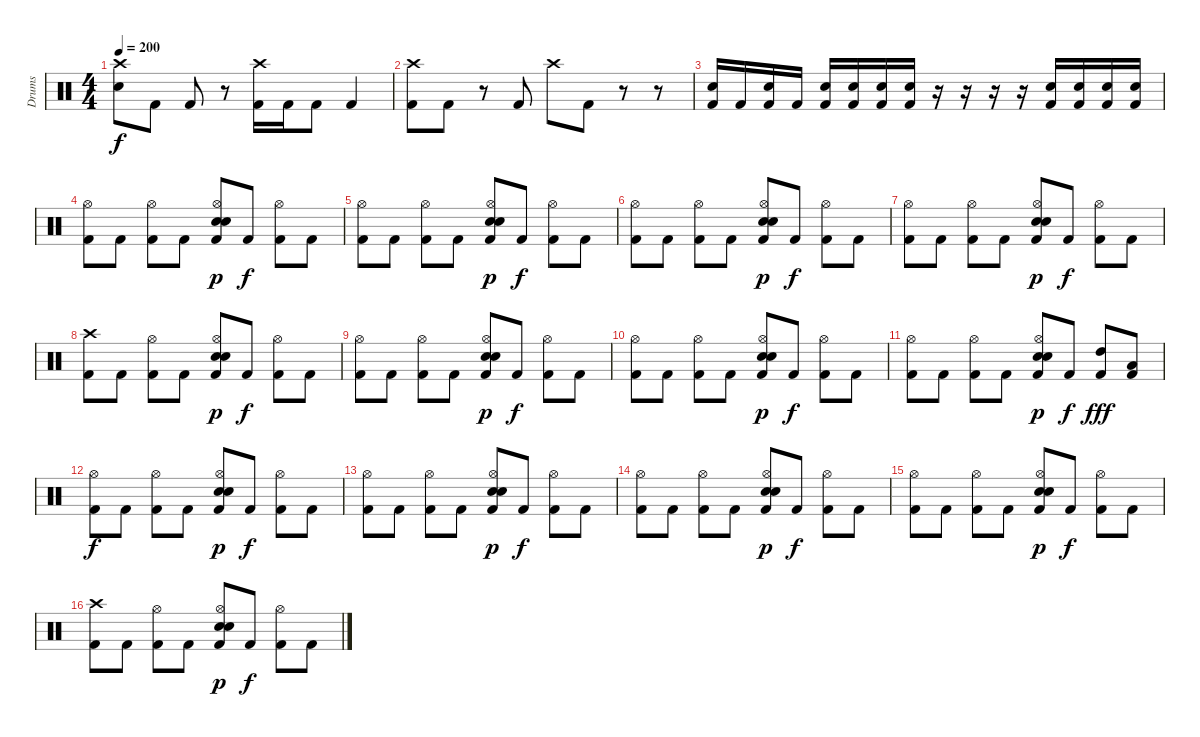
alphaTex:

\track ("Drums" "Drums") {instrument percussion}
\staff {score}
\articulation defaults
\ts (4 4)
\tempo 200
\clef neutral
\ks c
("Crash high (hit)" "Electric Snare (hit)").8{dy f} "Kick (hit) 2".8 "Kick (hit) 2".8 r.8 ("Crash high (hit)" "Kick (hit) 2").16 "Kick (hit) 2".16 "Kick (hit) 2".8 "Kick (hit) 2".4 |
("Crash high (hit)" "Kick (hit) 2").8 "Kick (hit) 2".8 r.8 "Kick (hit) 2".8 "Crash high (hit)".8 "Kick (hit) 2".8 r.8 r.8 |
("Electric Snare (hit)" "Kick (hit) 2").16 "Kick (hit) 2".16 ("Electric Snare (hit)" "Kick (hit) 2").16 "Kick (hit) 2".16 ("Electric Snare (hit)" "Kick (hit) 2").16 ("Electric Snare (hit)" "Kick (hit) 2").16 ("Electric Snare (hit)" "Kick (hit) 2").16 ("Electric Snare (hit)" "Kick (hit) 2").16 r.16 r.16 r.16 r.16 ("Electric Snare (hit)" "Kick (hit) 2").16 ("Electric Snare (hit)" "Kick (hit) 2").16 ("Electric Snare (hit)" "Kick (hit) 2").16 ("Electric Snare (hit)" "Kick (hit) 2").16 |
("Hi-Hat (open)" "Kick (hit) 2").8 "Kick (hit) 2".8 ("Hi-Hat (open)" "Kick (hit) 2").8 "Kick (hit) 2".8 ("Hi-Hat (open)" "Snare (hit) 2" "Electric Snare (hit)" "Kick (hit) 2").8{dy p} "Kick (hit) 2".8{dy f} ("Hi-Hat (open)" "Kick (hit) 2").8 "Kick (hit) 2".8 |
("Hi-Hat (open)" "Kick (hit) 2").8 "Kick (hit) 2".8 ("Hi-Hat (open)" "Kick (hit) 2").8 "Kick (hit) 2".8 ("Hi-Hat (open)" "Snare (hit) 2" "Electric Snare (hit)" "Kick (hit) 2").8{dy p} "Kick (hit) 2".8{dy f} ("Hi-Hat (open)" "Kick (hit) 2").8 "Kick (hit) 2".8 |
("Hi-Hat (open)" "Kick (hit) 2").8 "Kick (hit) 2".8 ("Hi-Hat (open)" "Kick (hit) 2").8 "Kick (hit) 2".8 ("Hi-Hat (open)" "Snare (hit) 2" "Electric Snare (hit)" "Kick (hit) 2").8{dy p} "Kick (hit) 2".8{dy f} ("Hi-Hat (open)" "Kick (hit) 2").8 "Kick (hit) 2".8 |
("Hi-Hat (open)" "Kick (hit) 2").8 "Kick (hit) 2".8 ("Hi-Hat (open)" "Kick (hit) 2").8 "Kick (hit) 2".8 ("Hi-Hat (open)" "Snare (hit) 2" "Electric Snare (hit)" "Kick (hit) 2").8{dy p} "Kick (hit) 2".8{dy f} ("Hi-Hat (open)" "Kick (hit) 2").8 "Kick (hit) 2".8 |
("Crash high (hit)" "Kick (hit) 2").8 "Kick (hit) 2".8 ("Hi-Hat (open)" "Kick (hit) 2").8 "Kick (hit) 2".8 ("Hi-Hat (open)" "Snare (hit) 2" "Electric Snare (hit)" "Kick (hit) 2").8{dy p} "Kick (hit) 2".8{dy f} ("Hi-Hat (open)" "Kick (hit) 2").8 "Kick (hit) 2".8 |
("Hi-Hat (open)" "Kick (hit) 2").8 "Kick (hit) 2".8 ("Hi-Hat (open)" "Kick (hit) 2").8 "Kick (hit) 2".8 ("Hi-Hat (open)" "Snare (hit) 2" "Electric Snare (hit)" "Kick (hit) 2").8{dy p} "Kick (hit) 2".8{dy f} ("Hi-Hat (open)" "Kick (hit) 2").8 "Kick (hit) 2".8 |
("Hi-Hat (open)" "Kick (hit) 2").8 "Kick (hit) 2".8 ("Hi-Hat (open)" "Kick (hit) 2").8 "Kick (hit) 2".8 ("Hi-Hat (open)" "Snare (hit) 2" "Electric Snare (hit)" "Kick (hit) 2").8{dy p} "Kick (hit) 2".8{dy f} ("Hi-Hat (open)" "Kick (hit) 2").8 "Kick (hit) 2".8 |
("Hi-Hat (open)" "Kick (hit) 2").8 "Kick (hit) 2".8 ("Hi-Hat (open)" "Kick (hit) 2").8 "Kick (hit) 2".8 ("Hi-Hat (open)" "Snare (hit) 2" "Electric Snare (hit)" "Kick (hit) 2").8{dy p} "Kick (hit) 2".8{dy f} ("High Tom (hit)" "Kick (hit) 2").8{dy fff} ("Low Tom (hit)" "Kick (hit) 2").8 |
("Hi-Hat (open)" "Kick (hit) 2").8{dy f} "Kick (hit) 2".8 ("Hi-Hat (open)" "Kick (hit) 2").8 "Kick (hit) 2".8 ("Hi-Hat (open)" "Snare (hit) 2" "Electric Snare (hit)" "Kick (hit) 2").8{dy p} "Kick (hit) 2".8{dy f} ("Hi-Hat (open)" "Kick (hit) 2").8 "Kick (hit) 2".8 |
("Hi-Hat (open)" "Kick (hit) 2").8 "Kick (hit) 2".8 ("Hi-Hat (open)" "Kick (hit) 2").8 "Kick (hit) 2".8 ("Hi-Hat (open)" "Snare (hit) 2" "Electric Snare (hit)" "Kick (hit) 2").8{dy p} "Kick (hit) 2".8{dy f} ("Hi-Hat (open)" "Kick (hit) 2").8 "Kick (hit) 2".8 |
("Hi-Hat (open)" "Kick (hit) 2").8 "Kick (hit) 2".8 ("Hi-Hat (open)" "Kick (hit) 2").8 "Kick (hit) 2".8 ("Hi-Hat (open)" "Snare (hit) 2" "Electric Snare (hit)" "Kick (hit) 2").8{dy p} "Kick (hit) 2".8{dy f} ("Hi-Hat (open)" "Kick (hit) 2").8 "Kick (hit) 2".8 |
("Hi-Hat (open)" "Kick (hit) 2").8 "Kick (hit) 2".8 ("Hi-Hat (open)" "Kick (hit) 2").8 "Kick (hit) 2".8 ("Hi-Hat (open)" "Snare (hit) 2" "Electric Snare (hit)" "Kick (hit) 2").8{dy p} "Kick (hit) 2".8{dy f} ("Hi-Hat (open)" "Kick (hit) 2").8 "Kick (hit) 2".8 |
("Crash high (hit)" "Kick (hit) 2").8 "Kick (hit) 2".8 ("Hi-Hat (open)" "Kick (hit) 2").8 "Kick (hit) 2".8 ("Hi-Hat (open)" "Snare (hit) 2" "Electric Snare (hit)" "Kick (hit) 2").8{dy p} "Kick (hit) 2".8{dy f} ("Hi-Hat (open)" "Kick (hit) 2").8 "Kick (hit) 2".8
